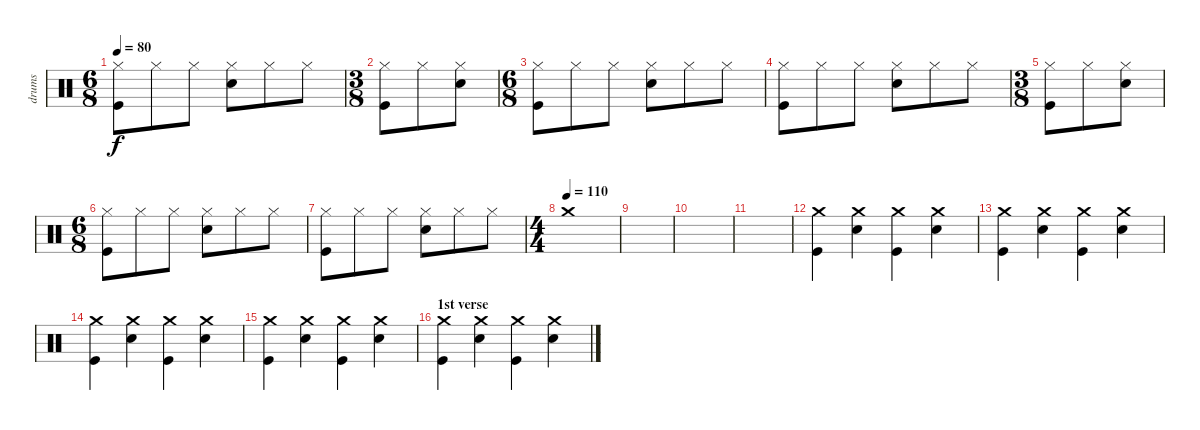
\track ("drums" "drums") {instrument percussion}
\staff {score}
\articulation defaults
\ts (6 8)
\tempo 80
\clef neutral
\ks c
("Hi-Hat (closed)" "Kick (hit)").8{dy f} "Hi-Hat (closed)".8 "Hi-Hat (closed)".8 ("Hi-Hat (closed)" "Snare (hit) 2").8 "Hi-Hat (closed)".8 "Hi-Hat (closed)".8 |
\ts (3 8)
("Hi-Hat (closed)" "Kick (hit)").8 "Hi-Hat (closed)".8 ("Hi-Hat (closed)" "Snare (hit) 2").8 |
\ts (6 8)
("Hi-Hat (closed)" "Kick (hit)").8 "Hi-Hat (closed)".8 "Hi-Hat (closed)".8 ("Hi-Hat (closed)" "Snare (hit) 2").8 "Hi-Hat (closed)".8 "Hi-Hat (closed)".8 |
("Hi-Hat (closed)" "Kick (hit)").8 "Hi-Hat (closed)".8 "Hi-Hat (closed)".8 ("Hi-Hat (closed)" "Snare (hit) 2").8 "Hi-Hat (closed)".8 "Hi-Hat (closed)".8 |
\ts (3 8)
("Hi-Hat (closed)" "Kick (hit)").8 "Hi-Hat (closed)".8 ("Hi-Hat (closed)" "Snare (hit) 2").8 |
\ts (6 8)
("Hi-Hat (closed)" "Kick (hit)").8 "Hi-Hat (closed)".8 "Hi-Hat (closed)".8 ("Hi-Hat (closed)" "Snare (hit) 2").8 "Hi-Hat (closed)".8 "Hi-Hat (closed)".8 |
("Hi-Hat (closed)" "Kick (hit)").8 "Hi-Hat (closed)".8 "Hi-Hat (closed)".8 ("Hi-Hat (closed)" "Snare (hit) 2").8 "Hi-Hat (closed)".8 "Hi-Hat (closed)".8 |
\ts (4 4)
\section ("" "")
\tempo (110)
"Crash medium (hit)".1 |
|
|
|
("Crash medium (hit)" "Kick (hit)").4 ("Crash medium (hit)" "Snare (hit) 2").4 ("Crash medium (hit)" "Kick (hit)").4 ("Crash medium (hit)" "Snare (hit) 2").4 |
("Crash medium (hit)" "Kick (hit)").4 ("Crash medium (hit)" "Snare (hit) 2").4 ("Crash medium (hit)" "Kick (hit)").4 ("Crash medium (hit)" "Snare (hit) 2").4 |
("Crash medium (hit)" "Kick (hit)").4 ("Crash medium (hit)" "Snare (hit) 2").4 ("Crash medium (hit)" "Kick (hit)").4 ("Crash medium (hit)" "Snare (hit) 2").4 |
("Crash medium (hit)" "Kick (hit)").4 ("Crash medium (hit)" "Snare (hit) 2").4 ("Crash medium (hit)" "Kick (hit)").4 ("Crash medium (hit)" "Snare (hit) 2").4 |
\section ("" "1st verse")
("Crash medium (hit)" "Kick (hit)").4 ("Crash medium (hit)" "Snare (hit) 2").4 ("Crash medium (hit)" "Kick (hit)").4 ("Crash medium (hit)" "Snare (hit) 2").4
